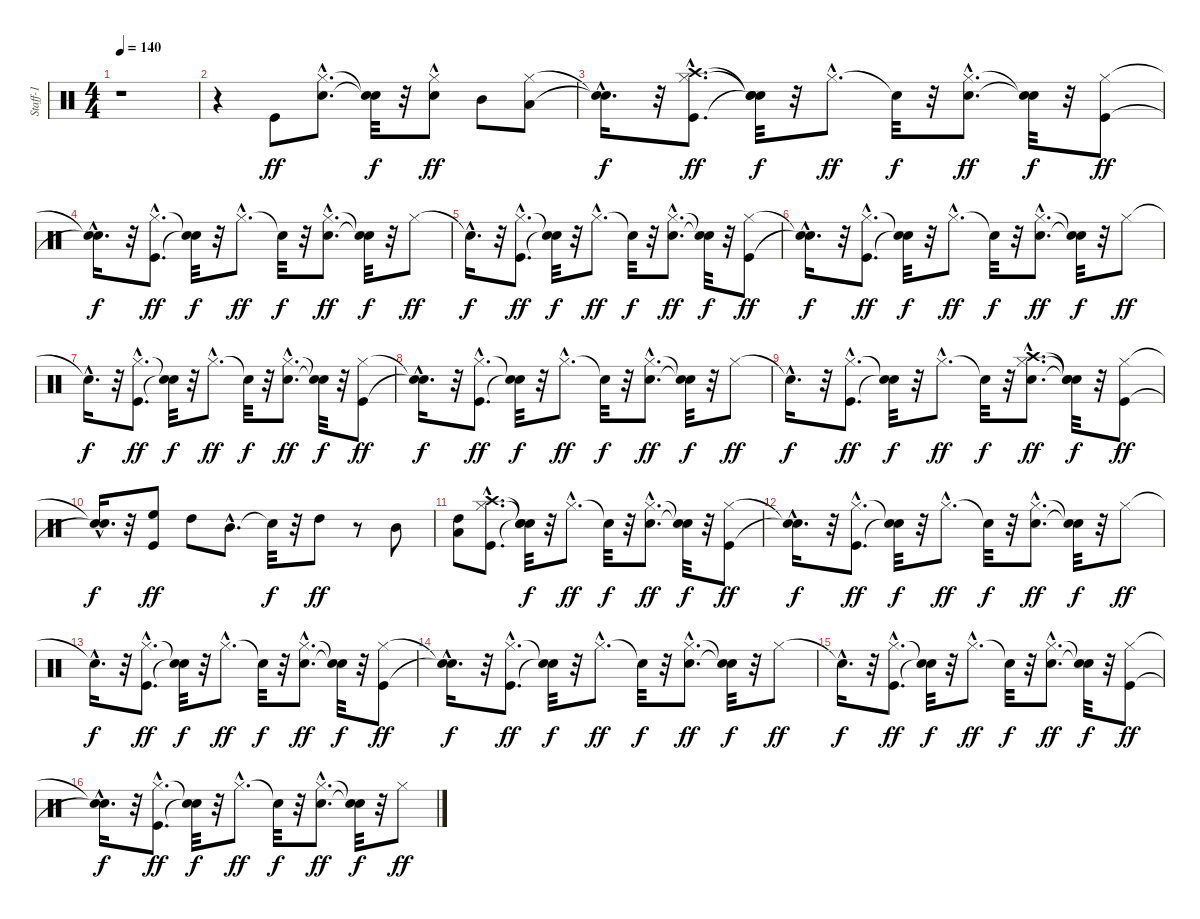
\track ("Staff-1" "Staff-1") {instrument percussion}
\staff {score}
\articulation defaults
\ts (4 4)
\tempo 140
\clef neutral
\ks c
r.1{dy f} |
r.4 "Kick (hit)".8{dy ff} ("Snare (hit) 2"{hac} "Hi-Hat (closed)"{hac}).8{d} ("Snare (hit)"{t} "Snare (hit)"{t}).32{dy f} r.32 ("Snare (hit) 2" "Hi-Hat (closed)"{hac}).8{dy ff} "Mid Tom (hit)".8 ("Hi-Hat (closed)" "Low Tom (hit)").8 |
("Snare (hit)"{hac t} "Snare (hit)"{hac t}).16{d dy f} r.32 ("Kick (hit)"{hac} "Hi-Hat (closed)"{hac} "Crash high (hit)"{hac}).8{d dy ff} ("Snare (hit)"{t} "Snare (hit)"{t} "Snare (hit)"{t}).32{dy f} r.32 "Hi-Hat (closed)"{hac}.8{d dy ff} "Snare (hit)"{t}.32{dy f} r.32 ("Snare (hit) 2"{hac} "Hi-Hat (closed)"{hac}).8{d dy ff} ("Snare (hit)"{t} "Snare (hit)"{t}).32{dy f} r.32 ("Kick (hit)" "Hi-Hat (closed)").8{dy ff} |
("Snare (hit)"{hac t} "Snare (hit)"{hac t}).16{d dy f} r.32 ("Kick (hit)"{hac} "Hi-Hat (closed)"{hac}).8{d dy ff} ("Snare (hit)"{t} "Snare (hit)"{t}).32{dy f} r.32 "Hi-Hat (closed)"{hac}.8{d dy ff} "Snare (hit)"{t}.32{dy f} r.32 ("Snare (hit) 2"{hac} "Hi-Hat (closed)"{hac}).8{d dy ff} ("Snare (hit)"{t} "Snare (hit)"{t}).32{dy f} r.32 "Hi-Hat (closed)".8{dy ff} |
"Snare (hit)"{hac t}.16{d dy f} r.32 ("Kick (hit)"{hac} "Hi-Hat (closed)"{hac}).8{d dy ff} ("Snare (hit)"{t} "Snare (hit)"{t}).32{dy f} r.32 "Hi-Hat (closed)"{hac}.8{d dy ff} "Snare (hit)"{t}.32{dy f} r.32 ("Snare (hit) 2"{hac} "Hi-Hat (closed)"{hac}).8{d dy ff} ("Snare (hit)"{t} "Snare (hit)"{t}).32{dy f} r.32 ("Kick (hit)" "Hi-Hat (closed)").8{dy ff} |
("Snare (hit)"{hac t} "Snare (hit)"{hac t}).16{d dy f} r.32 ("Kick (hit)"{hac} "Hi-Hat (closed)"{hac}).8{d dy ff} ("Snare (hit)"{t} "Snare (hit)"{t}).32{dy f} r.32 "Hi-Hat (closed)"{hac}.8{d dy ff} "Snare (hit)"{t}.32{dy f} r.32 ("Snare (hit) 2"{hac} "Hi-Hat (closed)"{hac}).8{d dy ff} ("Snare (hit)"{t} "Snare (hit)"{t}).32{dy f} r.32 "Hi-Hat (closed)".8{dy ff} |
"Snare (hit)"{hac t}.16{d dy f} r.32 ("Kick (hit)"{hac} "Hi-Hat (closed)"{hac}).8{d dy ff} ("Snare (hit)"{t} "Snare (hit)"{t}).32{dy f} r.32 "Hi-Hat (closed)"{hac}.8{d dy ff} "Snare (hit)"{t}.32{dy f} r.32 ("Snare (hit) 2"{hac} "Hi-Hat (closed)"{hac}).8{d dy ff} ("Snare (hit)"{t} "Snare (hit)"{t}).32{dy f} r.32 ("Kick (hit)" "Hi-Hat (closed)").8{dy ff} |
("Snare (hit)"{hac t} "Snare (hit)"{hac t}).16{d dy f} r.32 ("Kick (hit)"{hac} "Hi-Hat (closed)"{hac}).8{d dy ff} ("Snare (hit)"{t} "Snare (hit)"{t}).32{dy f} r.32 "Hi-Hat (closed)"{hac}.8{d dy ff} "Snare (hit)"{t}.32{dy f} r.32 ("Snare (hit) 2"{hac} "Hi-Hat (closed)"{hac}).8{d dy ff} ("Snare (hit)"{t} "Snare (hit)"{t}).32{dy f} r.32 "Hi-Hat (closed)".8{dy ff} |
"Snare (hit)"{hac t}.16{d dy f} r.32 ("Kick (hit)"{hac} "Hi-Hat (closed)"{hac}).8{d dy ff} ("Snare (hit)"{t} "Snare (hit)"{t}).32{dy f} r.32 "Hi-Hat (closed)"{hac}.8{d dy ff} "Snare (hit)"{t}.32{dy f} r.32 ("Snare (hit) 2"{hac} "Hi-Hat (closed)"{hac} "Crash high (hit)"{hac}).8{d dy ff} ("Snare (hit)"{t} "Snare (hit)"{t} "Snare (hit)"{t}).32{dy f} r.32 ("Kick (hit)" "Hi-Hat (closed)").8{dy ff} |
("Snare (hit)"{hac t} "Snare (hit)"{hac t}).16{d dy f} r.32 ("Kick (hit)" "High Floor Tom (hit)").8{dy ff} "High Tom (hit)".8 "Mid Tom (hit)"{hac}.8{d} "Snare (hit)"{t}.32{dy f} r.32 "High Tom (hit)".8{dy ff} r.8 "Mid Tom (hit)".8 |
("Low Tom (hit)" "High Tom (hit)").8 ("Kick (hit)"{hac} "Hi-Hat (closed)"{hac} "Crash high (hit)"{hac}).8{d} ("Snare (hit)"{t} "Snare (hit)"{t} "Snare (hit)"{t}).32{dy f} r.32 "Hi-Hat (closed)"{hac}.8{d dy ff} "Snare (hit)"{t}.32{dy f} r.32 ("Snare (hit) 2"{hac} "Hi-Hat (closed)"{hac}).8{d dy ff} ("Snare (hit)"{t} "Snare (hit)"{t}).32{dy f} r.32 ("Kick (hit)" "Hi-Hat (closed)").8{dy ff} |
("Snare (hit)"{hac t} "Snare (hit)"{hac t}).16{d dy f} r.32 ("Kick (hit)"{hac} "Hi-Hat (closed)"{hac}).8{d dy ff} ("Snare (hit)"{t} "Snare (hit)"{t}).32{dy f} r.32 "Hi-Hat (closed)"{hac}.8{d dy ff} "Snare (hit)"{t}.32{dy f} r.32 ("Snare (hit) 2"{hac} "Hi-Hat (closed)"{hac}).8{d dy ff} ("Snare (hit)"{t} "Snare (hit)"{t}).32{dy f} r.32 "Hi-Hat (closed)".8{dy ff} |
"Snare (hit)"{hac t}.16{d dy f} r.32 ("Kick (hit)"{hac} "Hi-Hat (closed)"{hac}).8{d dy ff} ("Snare (hit)"{t} "Snare (hit)"{t}).32{dy f} r.32 "Hi-Hat (closed)"{hac}.8{d dy ff} "Snare (hit)"{t}.32{dy f} r.32 ("Snare (hit) 2"{hac} "Hi-Hat (closed)"{hac}).8{d dy ff} ("Snare (hit)"{t} "Snare (hit)"{t}).32{dy f} r.32 ("Kick (hit)" "Hi-Hat (closed)").8{dy ff} |
("Snare (hit)"{hac t} "Snare (hit)"{hac t}).16{d dy f} r.32 ("Kick (hit)"{hac} "Hi-Hat (closed)"{hac}).8{d dy ff} ("Snare (hit)"{t} "Snare (hit)"{t}).32{dy f} r.32 "Hi-Hat (closed)"{hac}.8{d dy ff} "Snare (hit)"{t}.32{dy f} r.32 ("Snare (hit) 2"{hac} "Hi-Hat (closed)"{hac}).8{d dy ff} ("Snare (hit)"{t} "Snare (hit)"{t}).32{dy f} r.32 "Hi-Hat (closed)".8{dy ff} |
"Snare (hit)"{hac t}.16{d dy f} r.32 ("Kick (hit)"{hac} "Hi-Hat (closed)"{hac}).8{d dy ff} ("Snare (hit)"{t} "Snare (hit)"{t}).32{dy f} r.32 "Hi-Hat (closed)"{hac}.8{d dy ff} "Snare (hit)"{t}.32{dy f} r.32 ("Snare (hit) 2"{hac} "Hi-Hat (closed)"{hac}).8{d dy ff} ("Snare (hit)"{t} "Snare (hit)"{t}).32{dy f} r.32 ("Kick (hit)" "Hi-Hat (closed)").8{dy ff} |
("Snare (hit)"{hac t} "Snare (hit)"{hac t}).16{d dy f} r.32 ("Kick (hit)"{hac} "Hi-Hat (closed)"{hac}).8{d dy ff} ("Snare (hit)"{t} "Snare (hit)"{t}).32{dy f} r.32 "Hi-Hat (closed)"{hac}.8{d dy ff} "Snare (hit)"{t}.32{dy f} r.32 ("Snare (hit) 2"{hac} "Hi-Hat (closed)"{hac}).8{d dy ff} ("Snare (hit)"{t} "Snare (hit)"{t}).32{dy f} r.32 "Hi-Hat (closed)".8{dy ff}
